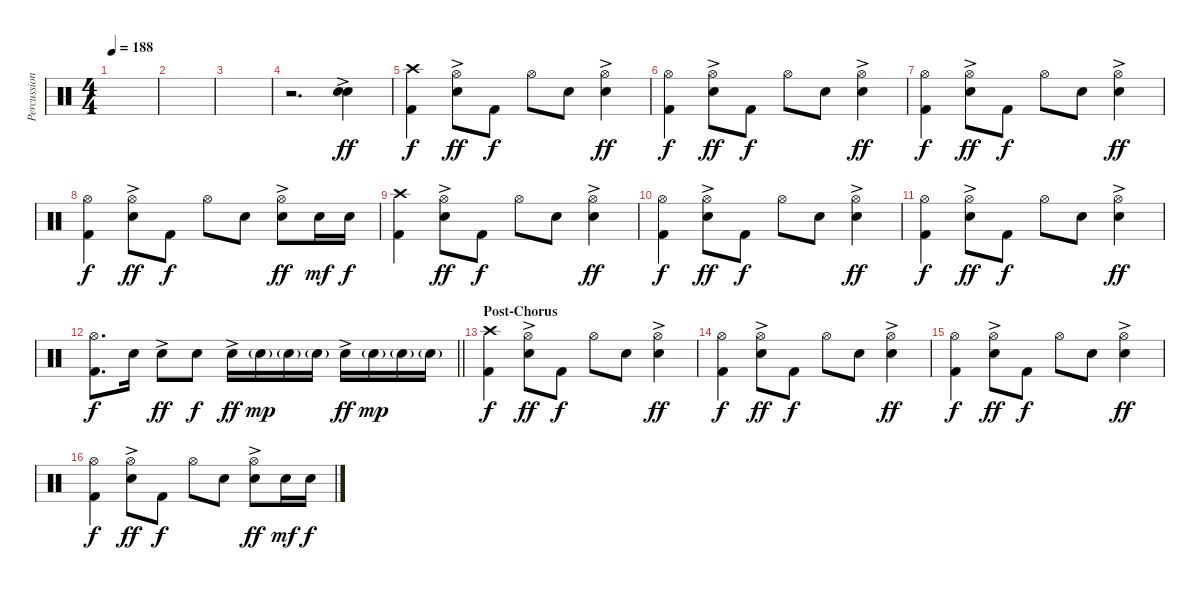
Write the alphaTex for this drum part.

\track ("Percussion" "Percussion") {instrument percussion}
\staff {score}
\articulation defaults
\ts (4 4)
\tempo 188
\clef neutral
\ks c
|
|
|
r.2{d} ("Electric Snare (hit)"{ac} "Electric Snare (hit)").4{bu 120 dy ff} |
("Crash high (hit)" "Kick (hit) 2").4{dy f} ("Hi-Hat (open)" "Electric Snare (hit)"{ac}).8{dy ff} "Kick (hit) 2".8{dy f} "Hi-Hat (open)".8 "Electric Snare (hit)".8 ("Hi-Hat (open)" "Electric Snare (hit)"{ac}).4{dy ff} |
("Hi-Hat (open)" "Kick (hit) 2").4{dy f} ("Hi-Hat (open)" "Electric Snare (hit)"{ac}).8{dy ff} "Kick (hit) 2".8{dy f} "Hi-Hat (open)".8 "Electric Snare (hit)".8 ("Hi-Hat (open)" "Electric Snare (hit)"{ac}).4{dy ff} |
("Hi-Hat (open)" "Kick (hit) 2").4{dy f} ("Hi-Hat (open)" "Electric Snare (hit)"{ac}).8{dy ff} "Kick (hit) 2".8{dy f} "Hi-Hat (open)".8 "Electric Snare (hit)".8 ("Hi-Hat (open)" "Electric Snare (hit)"{ac}).4{dy ff} |
("Hi-Hat (open)" "Kick (hit) 2").4{dy f} ("Hi-Hat (open)" "Electric Snare (hit)"{ac}).8{dy ff} "Kick (hit) 2".8{dy f} "Hi-Hat (open)".8 "Electric Snare (hit)".8 ("Hi-Hat (open)" "Electric Snare (hit)"{ac}).8{dy ff} "Electric Snare (hit)".16{dy mf} "Electric Snare (hit)".16{dy f} |
("Crash high (hit)" "Kick (hit) 2").4 ("Hi-Hat (open)" "Electric Snare (hit)"{ac}).8{dy ff} "Kick (hit) 2".8{dy f} "Hi-Hat (open)".8 "Electric Snare (hit)".8 ("Hi-Hat (open)" "Electric Snare (hit)"{ac}).4{dy ff} |
("Hi-Hat (open)" "Kick (hit) 2").4{dy f} ("Hi-Hat (open)" "Electric Snare (hit)"{ac}).8{dy ff} "Kick (hit) 2".8{dy f} "Hi-Hat (open)".8 "Electric Snare (hit)".8 ("Hi-Hat (open)" "Electric Snare (hit)"{ac}).4{dy ff} |
("Hi-Hat (open)" "Kick (hit) 2").4{dy f} ("Hi-Hat (open)" "Electric Snare (hit)"{ac}).8{dy ff} "Kick (hit) 2".8{dy f} "Hi-Hat (open)".8 "Electric Snare (hit)".8 ("Hi-Hat (open)" "Electric Snare (hit)"{ac}).4{dy ff} |
\barLineRight lightlight
("Hi-Hat (open)" "Kick (hit) 2").8{d dy f} "Electric Snare (hit)".16 "Electric Snare (hit)"{ac}.8{dy ff} "Electric Snare (hit)".8{dy f} "Electric Snare (hit)"{ac}.16{dy ff} "Electric Snare (hit)"{g}.16{dy mp} "Electric Snare (hit)"{g}.16 "Electric Snare (hit)"{g}.16 "Electric Snare (hit)"{ac}.16{dy ff} "Electric Snare (hit)"{g}.16{dy mp} "Electric Snare (hit)"{g}.16 "Electric Snare (hit)"{g}.16 |
\section ("" "Post-Chorus")
("Crash high (hit)" "Kick (hit) 2").4{dy f} ("Hi-Hat (open)" "Electric Snare (hit)"{ac}).8{dy ff} "Kick (hit) 2".8{dy f} "Hi-Hat (open)".8 "Electric Snare (hit)".8 ("Hi-Hat (open)" "Electric Snare (hit)"{ac}).4{dy ff} |
("Hi-Hat (open)" "Kick (hit) 2").4{dy f} ("Hi-Hat (open)" "Electric Snare (hit)"{ac}).8{dy ff} "Kick (hit) 2".8{dy f} "Hi-Hat (open)".8 "Electric Snare (hit)".8 ("Hi-Hat (open)" "Electric Snare (hit)"{ac}).4{dy ff} |
("Hi-Hat (open)" "Kick (hit) 2").4{dy f} ("Hi-Hat (open)" "Electric Snare (hit)"{ac}).8{dy ff} "Kick (hit) 2".8{dy f} "Hi-Hat (open)".8 "Electric Snare (hit)".8 ("Hi-Hat (open)" "Electric Snare (hit)"{ac}).4{dy ff} |
("Hi-Hat (open)" "Kick (hit) 2").4{dy f} ("Hi-Hat (open)" "Electric Snare (hit)"{ac}).8{dy ff} "Kick (hit) 2".8{dy f} "Hi-Hat (open)".8 "Electric Snare (hit)".8 ("Hi-Hat (open)" "Electric Snare (hit)"{ac}).8{dy ff} "Electric Snare (hit)".16{dy mf} "Electric Snare (hit)".16{dy f}
